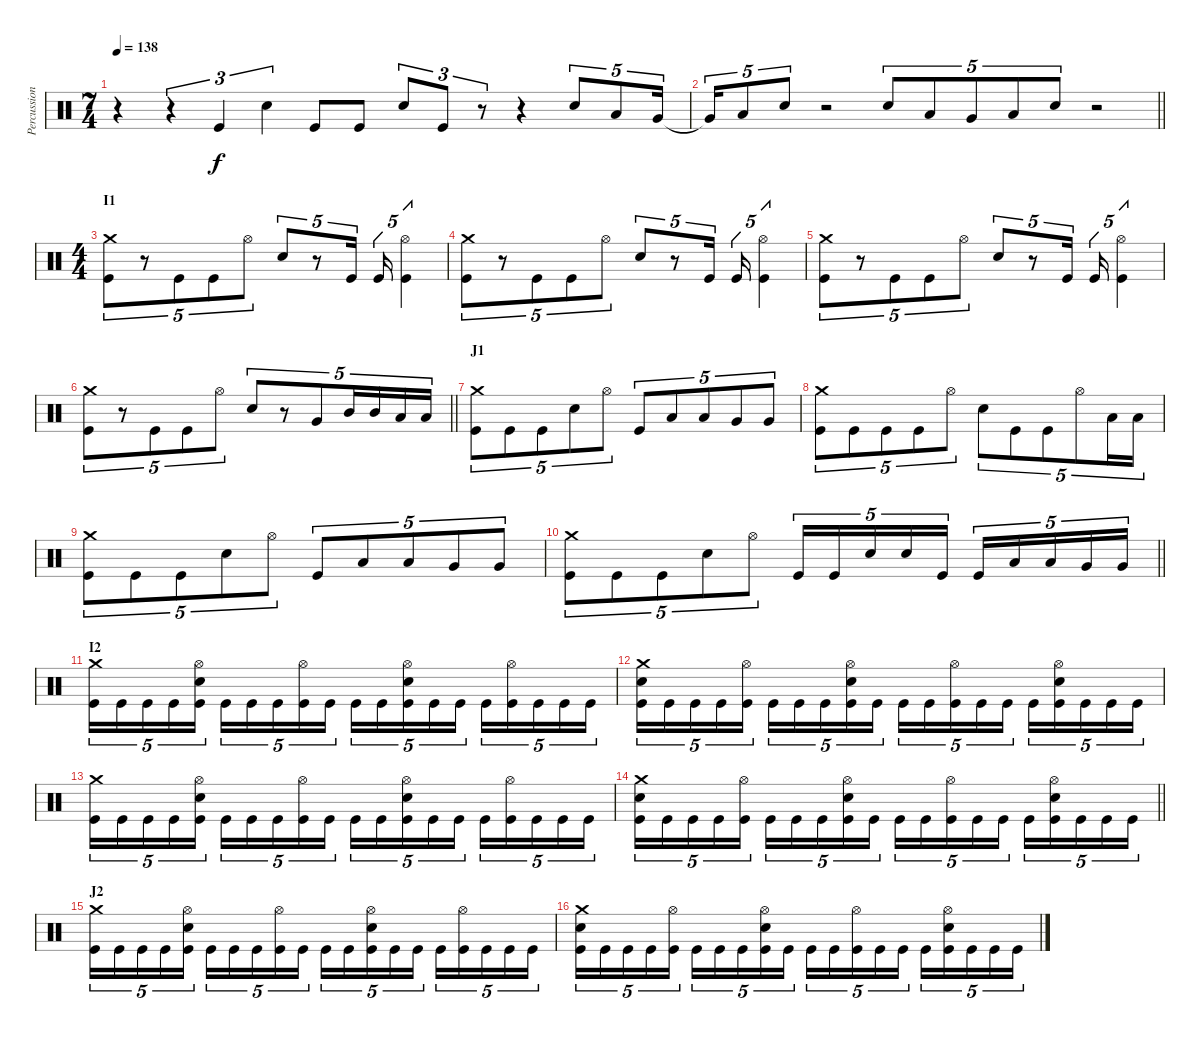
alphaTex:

\track ("Percussion" "Percussion") {instrument percussion}
\staff {score}
\articulation defaults
\ts (7 4)
\tempo 138
\clef neutral
\ks c
r.4{dy f} r.4{tu (3 2)} "Kick (hit)".4{tu (3 2)} "Snare (hit) 2".4{tu (3 2)} "Kick (hit)".8 "Kick (hit)".8 "Snare (hit) 2".8{tu (3 2)} "Kick (hit)".8{tu (3 2)} r.8{tu (3 2)} r.4 "Snare (hit) 2".8{tu (5 4)} "Low Tom (hit)".8{tu (5 4)} "Very Low Tom (hit)".16{tu (5 4)} |
\barLineRight lightlight "Very Low Tom (hit)"{t}.16{tu (5 4)} "Low Floor Tom (hit)".8{tu (5 4)} "Snare (hit) 2".8{tu (5 4)}
r.2 "Snare (hit) 2".8{tu (5 4)} "Low Tom (hit)".8{tu (5 4)} "Very Low Tom (hit)".8{tu (5 4)} "Low Floor Tom (hit)".8{tu (5 4)} "Snare (hit) 2".8{tu (5 4)} r.2 |
\ts (4 4)
\section ("" "I1")
("Kick (hit)" "Crash medium (hit)").8{tu (5 4)} r.8{tu (5 4)} "Kick (hit)".8{tu (5 4)} "Kick (hit)".8{tu (5 4)} "Hi-Hat (open)".8{tu (5 4)} "Snare (hit) 2".8{tu (5 4)} r.8{tu (5 4)} "Kick (hit)".16{tu (5 4)} "Kick (hit)".16{tu (5 4)} ("Kick (hit)" "Hi-Hat (open)").4{tu (5 4)} |
("Kick (hit)" "Crash medium (hit)").8{tu (5 4)} r.8{tu (5 4)} "Kick (hit)".8{tu (5 4)} "Kick (hit)".8{tu (5 4)} "Hi-Hat (open)".8{tu (5 4)} "Snare (hit) 2".8{tu (5 4)} r.8{tu (5 4)} "Kick (hit)".16{tu (5 4)} "Kick (hit)".16{tu (5 4)} ("Kick (hit)" "Hi-Hat (open)").4{tu (5 4)} |
("Kick (hit)" "Crash medium (hit)").8{tu (5 4)} r.8{tu (5 4)} "Kick (hit)".8{tu (5 4)} "Kick (hit)".8{tu (5 4)} "Hi-Hat (open)".8{tu (5 4)} "Snare (hit) 2".8{tu (5 4)} r.8{tu (5 4)} "Kick (hit)".16{tu (5 4)} "Kick (hit)".16{tu (5 4)} ("Kick (hit)" "Hi-Hat (open)").4{tu (5 4)} |
\barLineRight lightlight
("Kick (hit)" "Crash medium (hit)").8{tu (5 4)} r.8{tu (5 4)} "Kick (hit)".8{tu (5 4)} "Kick (hit)".8{tu (5 4)} "Hi-Hat (open)".8{tu (5 4)} "Snare (hit) 2".8{tu (5 4)} r.8{tu (5 4)} "Very Low Tom (hit)".8{tu (5 4)} "Mid Tom (hit)".16{tu (5 4)} "Mid Tom (hit)".16{tu (5 4)} "Low Tom (hit)".16{tu (5 4)} "Low Tom (hit)".16{tu (5 4)} |
\section ("" "J1")
("Kick (hit)" "Crash medium (hit)").8{tu (5 4)} "Kick (hit)".8{tu (5 4)} "Kick (hit)".8{tu (5 4)} "Snare (hit) 2".8{tu (5 4)} "Hi-Hat (open)".8{tu (5 4)} "Kick (hit)".8{tu (5 4)} "Low Tom (hit)".8{tu (5 4)} "Low Tom (hit)".8{tu (5 4)} "Very Low Tom (hit)".8{tu (5 4)} "Very Low Tom (hit)".8{tu (5 4)} |
("Kick (hit)" "Crash medium (hit)").8{tu (5 4)} "Kick (hit)".8{tu (5 4)} "Kick (hit)".8{tu (5 4)} "Kick (hit)".8{tu (5 4)} "Hi-Hat (open)".8{tu (5 4)} "Snare (hit) 2".8{tu (5 4)} "Kick (hit)".8{tu (5 4)} "Kick (hit)".8{tu (5 4)} "Hi-Hat (open)".8{tu (5 4)} "Low Tom (hit)".16{tu (5 4)} "Low Tom (hit)".16{tu (5 4)} |
("Kick (hit)" "Crash medium (hit)").8{tu (5 4)} "Kick (hit)".8{tu (5 4)} "Kick (hit)".8{tu (5 4)} "Snare (hit) 2".8{tu (5 4)} "Hi-Hat (open)".8{tu (5 4)} "Kick (hit)".8{tu (5 4)} "Low Tom (hit)".8{tu (5 4)} "Low Tom (hit)".8{tu (5 4)} "Very Low Tom (hit)".8{tu (5 4)} "Very Low Tom (hit)".8{tu (5 4)} |
\barLineRight lightlight
("Kick (hit)" "Crash medium (hit)").8{tu (5 4)} "Kick (hit)".8{tu (5 4)} "Kick (hit)".8{tu (5 4)} "Snare (hit) 2".8{tu (5 4)} "Hi-Hat (open)".8{tu (5 4)} "Kick (hit)".16{tu (5 4)} "Kick (hit)".16{tu (5 4)} "Snare (hit) 2".16{tu (5 4)} "Snare (hit) 2".16{tu (5 4)} "Kick (hit)".16{tu (5 4)} "Kick (hit)".16{tu (5 4)} "Low Tom (hit)".16{tu (5 4)} "Low Tom (hit)".16{tu (5 4)} "Very Low Tom (hit)".16{tu (5 4)} "Very Low Tom (hit)".16{tu (5 4)} |
\section ("" "I2")
("Kick (hit)" "Crash medium (hit)").16{tu (5 4)} "Kick (hit)".16{tu (5 4)} "Kick (hit)".16{tu (5 4)} "Kick (hit)".16{tu (5 4)} ("Kick (hit)" "Snare (hit) 2" "Hi-Hat (open)").16{tu (5 4)} "Kick (hit)".16{tu (5 4)} "Kick (hit)".16{tu (5 4)} "Kick (hit)".16{tu (5 4)} ("Kick (hit)" "Hi-Hat (open)").16{tu (5 4)} "Kick (hit)".16{tu (5 4)} "Kick (hit)".16{tu (5 4)} "Kick (hit)".16{tu (5 4)} ("Kick (hit)" "Snare (hit) 2" "Hi-Hat (open)").16{tu (5 4)} "Kick (hit)".16{tu (5 4)} "Kick (hit)".16{tu (5 4)} "Kick (hit)".16{tu (5 4)} ("Kick (hit)" "Hi-Hat (open)").16{tu (5 4)} "Kick (hit)".16{tu (5 4)} "Kick (hit)".16{tu (5 4)} "Kick (hit)".16{tu (5 4)} |
("Kick (hit)" "Snare (hit) 2" "Crash medium (hit)").16{tu (5 4)} "Kick (hit)".16{tu (5 4)} "Kick (hit)".16{tu (5 4)} "Kick (hit)".16{tu (5 4)} ("Kick (hit)" "Hi-Hat (open)").16{tu (5 4)} "Kick (hit)".16{tu (5 4)} "Kick (hit)".16{tu (5 4)} "Kick (hit)".16{tu (5 4)} ("Kick (hit)" "Snare (hit) 2" "Hi-Hat (open)").16{tu (5 4)} "Kick (hit)".16{tu (5 4)} "Kick (hit)".16{tu (5 4)} "Kick (hit)".16{tu (5 4)} ("Kick (hit)" "Hi-Hat (open)").16{tu (5 4)} "Kick (hit)".16{tu (5 4)} "Kick (hit)".16{tu (5 4)} "Kick (hit)".16{tu (5 4)} ("Kick (hit)" "Snare (hit) 2" "Hi-Hat (open)").16{tu (5 4)} "Kick (hit)".16{tu (5 4)} "Kick (hit)".16{tu (5 4)} "Kick (hit)".16{tu (5 4)} |
("Kick (hit)" "Crash medium (hit)").16{tu (5 4)} "Kick (hit)".16{tu (5 4)} "Kick (hit)".16{tu (5 4)} "Kick (hit)".16{tu (5 4)} ("Kick (hit)" "Snare (hit) 2" "Hi-Hat (open)").16{tu (5 4)} "Kick (hit)".16{tu (5 4)} "Kick (hit)".16{tu (5 4)} "Kick (hit)".16{tu (5 4)} ("Kick (hit)" "Hi-Hat (open)").16{tu (5 4)} "Kick (hit)".16{tu (5 4)} "Kick (hit)".16{tu (5 4)} "Kick (hit)".16{tu (5 4)} ("Kick (hit)" "Snare (hit) 2" "Hi-Hat (open)").16{tu (5 4)} "Kick (hit)".16{tu (5 4)} "Kick (hit)".16{tu (5 4)} "Kick (hit)".16{tu (5 4)} ("Kick (hit)" "Hi-Hat (open)").16{tu (5 4)} "Kick (hit)".16{tu (5 4)} "Kick (hit)".16{tu (5 4)} "Kick (hit)".16{tu (5 4)} |
\barLineRight lightlight
("Kick (hit)" "Snare (hit) 2" "Crash medium (hit)").16{tu (5 4)} "Kick (hit)".16{tu (5 4)} "Kick (hit)".16{tu (5 4)} "Kick (hit)".16{tu (5 4)} ("Kick (hit)" "Hi-Hat (open)").16{tu (5 4)} "Kick (hit)".16{tu (5 4)} "Kick (hit)".16{tu (5 4)} "Kick (hit)".16{tu (5 4)} ("Kick (hit)" "Snare (hit) 2" "Hi-Hat (open)").16{tu (5 4)} "Kick (hit)".16{tu (5 4)} "Kick (hit)".16{tu (5 4)} "Kick (hit)".16{tu (5 4)} ("Kick (hit)" "Hi-Hat (open)").16{tu (5 4)} "Kick (hit)".16{tu (5 4)} "Kick (hit)".16{tu (5 4)} "Kick (hit)".16{tu (5 4)} ("Kick (hit)" "Snare (hit) 2" "Hi-Hat (open)").16{tu (5 4)} "Kick (hit)".16{tu (5 4)} "Kick (hit)".16{tu (5 4)} "Kick (hit)".16{tu (5 4)} |
\section ("" "J2")
("Kick (hit)" "Crash medium (hit)").16{tu (5 4)} "Kick (hit)".16{tu (5 4)} "Kick (hit)".16{tu (5 4)} "Kick (hit)".16{tu (5 4)} ("Kick (hit)" "Snare (hit) 2" "Hi-Hat (open)").16{tu (5 4)} "Kick (hit)".16{tu (5 4)} "Kick (hit)".16{tu (5 4)} "Kick (hit)".16{tu (5 4)} ("Kick (hit)" "Hi-Hat (open)").16{tu (5 4)} "Kick (hit)".16{tu (5 4)} "Kick (hit)".16{tu (5 4)} "Kick (hit)".16{tu (5 4)} ("Kick (hit)" "Snare (hit) 2" "Hi-Hat (open)").16{tu (5 4)} "Kick (hit)".16{tu (5 4)} "Kick (hit)".16{tu (5 4)} "Kick (hit)".16{tu (5 4)} ("Kick (hit)" "Hi-Hat (open)").16{tu (5 4)} "Kick (hit)".16{tu (5 4)} "Kick (hit)".16{tu (5 4)} "Kick (hit)".16{tu (5 4)} |
("Kick (hit)" "Snare (hit) 2" "Crash medium (hit)").16{tu (5 4)} "Kick (hit)".16{tu (5 4)} "Kick (hit)".16{tu (5 4)} "Kick (hit)".16{tu (5 4)} ("Kick (hit)" "Hi-Hat (open)").16{tu (5 4)} "Kick (hit)".16{tu (5 4)} "Kick (hit)".16{tu (5 4)} "Kick (hit)".16{tu (5 4)} ("Kick (hit)" "Snare (hit) 2" "Hi-Hat (open)").16{tu (5 4)} "Kick (hit)".16{tu (5 4)} "Kick (hit)".16{tu (5 4)} "Kick (hit)".16{tu (5 4)} ("Kick (hit)" "Hi-Hat (open)").16{tu (5 4)} "Kick (hit)".16{tu (5 4)} "Kick (hit)".16{tu (5 4)} "Kick (hit)".16{tu (5 4)} ("Kick (hit)" "Snare (hit) 2" "Hi-Hat (open)").16{tu (5 4)} "Kick (hit)".16{tu (5 4)} "Kick (hit)".16{tu (5 4)} "Kick (hit)".16{tu (5 4)}
